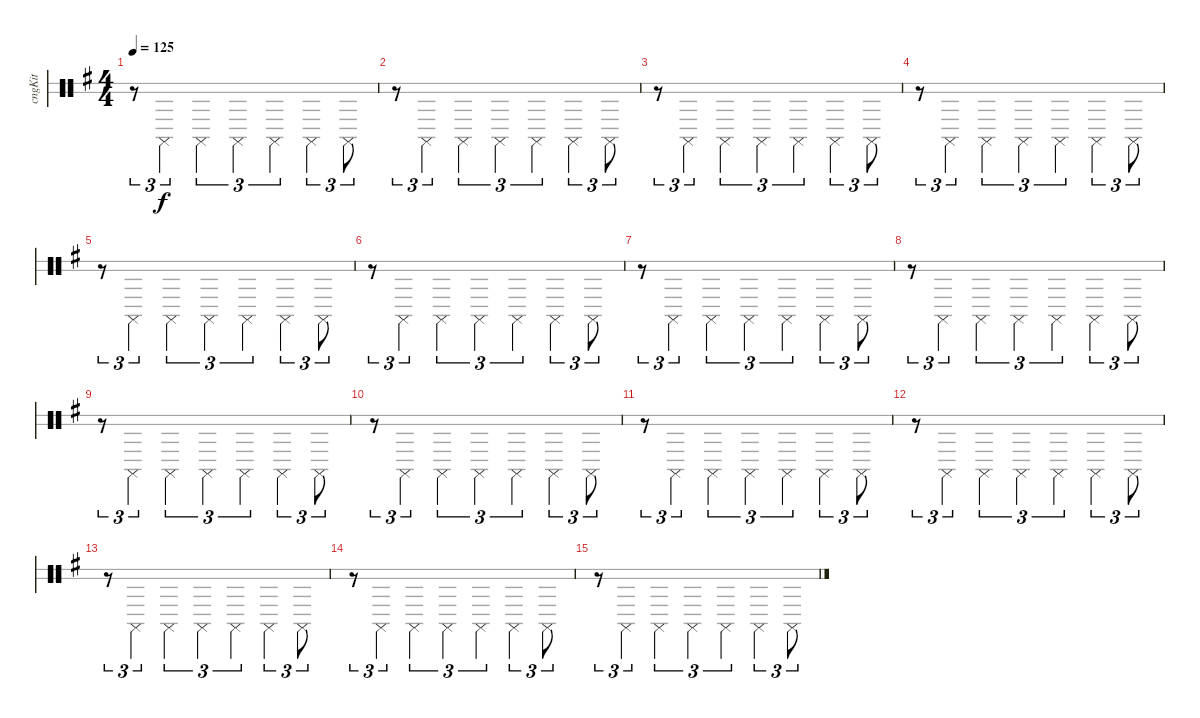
\defaultSystemsLayout 4
\bracketExtendMode groupsimilarinstruments
\otherSystemsTrackNameOrientation horizontal
\track ("Congas" "cngKit") {instrument percussion}
\staff {score 2}
\articulation defaults
\ts (4 4)
\tempo 125
\clef neutral
\scale
0.333333
\ks g
r.8{tu (3 2) dy f beam Down} "Conga high (slap)"{acc forcenatural}.4{tu (3 2) beam Down} "Conga high (slap)"{acc forcenatural}.4{tu (3 2) beam Down} "Conga high (slap)"{acc forcenatural}.4{tu (3 2) beam Down} "Conga high (slap)"{acc forcenatural}.4{tu (3 2) beam Down} "Conga high (slap)"{acc forcenatural}.4{tu (3 2) beam Down} "Conga high (slap)"{acc forcenatural}.8{tu (3 2) beam Down} |
\scale
0.333333 r.8{tu (3 2) beam Down} "Conga high (slap)"{acc forcenatural}.4{tu (3 2) beam Down} "Conga high (slap)"{acc forcenatural}.4{tu (3 2) beam Down} "Conga high (slap)"{acc forcenatural}.4{tu (3 2) beam Down} "Conga high (slap)"{acc forcenatural}.4{tu (3 2) beam Down} "Conga high (slap)"{acc forcenatural}.4{tu (3 2) beam Down} "Conga high (slap)"{acc forcenatural}.8{tu (3 2) beam Down} |
\scale
0.333333 r.8{tu (3 2) beam Down} "Conga high (slap)"{acc forcenatural}.4{tu (3 2) beam Down} "Conga high (slap)"{acc forcenatural}.4{tu (3 2) beam Down} "Conga high (slap)"{acc forcenatural}.4{tu (3 2) beam Down} "Conga high (slap)"{acc forcenatural}.4{tu (3 2) beam Down} "Conga high (slap)"{acc forcenatural}.4{tu (3 2) beam Down} "Conga high (slap)"{acc forcenatural}.8{tu (3 2) beam Down} |
\scale
0.333333 r.8{tu (3 2) beam Down} "Conga high (slap)"{acc forcenatural}.4{tu (3 2) beam Down} "Conga high (slap)"{acc forcenatural}.4{tu (3 2) beam Down} "Conga high (slap)"{acc forcenatural}.4{tu (3 2) beam Down} "Conga high (slap)"{acc forcenatural}.4{tu (3 2) beam Down} "Conga high (slap)"{acc forcenatural}.4{tu (3 2) beam Down} "Conga high (slap)"{acc forcenatural}.8{tu (3 2) beam Down} |
\scale
0.333333 r.8{tu (3 2) beam Down} "Conga high (slap)"{acc forcenatural}.4{tu (3 2) beam Down} "Conga high (slap)"{acc forcenatural}.4{tu (3 2) beam Down} "Conga high (slap)"{acc forcenatural}.4{tu (3 2) beam Down} "Conga high (slap)"{acc forcenatural}.4{tu (3 2) beam Down} "Conga high (slap)"{acc forcenatural}.4{tu (3 2) beam Down} "Conga high (slap)"{acc forcenatural}.8{tu (3 2) beam Down} |
\scale
0.333333 r.8{tu (3 2) beam Down} "Conga high (slap)"{acc forcenatural}.4{tu (3 2) beam Down} "Conga high (slap)"{acc forcenatural}.4{tu (3 2) beam Down} "Conga high (slap)"{acc forcenatural}.4{tu (3 2) beam Down} "Conga high (slap)"{acc forcenatural}.4{tu (3 2) beam Down} "Conga high (slap)"{acc forcenatural}.4{tu (3 2) beam Down} "Conga high (slap)"{acc forcenatural}.8{tu (3 2) beam Down} |
\scale
0.333333 r.8{tu (3 2) beam Down} "Conga high (slap)"{acc forcenatural}.4{tu (3 2) beam Down} "Conga high (slap)"{acc forcenatural}.4{tu (3 2) beam Down} "Conga high (slap)"{acc forcenatural}.4{tu (3 2) beam Down} "Conga high (slap)"{acc forcenatural}.4{tu (3 2) beam Down} "Conga high (slap)"{acc forcenatural}.4{tu (3 2) beam Down} "Conga high (slap)"{acc forcenatural}.8{tu (3 2) beam Down} |
\scale
0.333333 r.8{tu (3 2) beam Down} "Conga high (slap)"{acc forcenatural}.4{tu (3 2) beam Down} "Conga high (slap)"{acc forcenatural}.4{tu (3 2) beam Down} "Conga high (slap)"{acc forcenatural}.4{tu (3 2) beam Down} "Conga high (slap)"{acc forcenatural}.4{tu (3 2) beam Down} "Conga high (slap)"{acc forcenatural}.4{tu (3 2) beam Down} "Conga high (slap)"{acc forcenatural}.8{tu (3 2) beam Down} |
\scale
0.333333 r.8{tu (3 2) beam Down} "Conga high (slap)"{acc forcenatural}.4{tu (3 2) beam Down} "Conga high (slap)"{acc forcenatural}.4{tu (3 2) beam Down} "Conga high (slap)"{acc forcenatural}.4{tu (3 2) beam Down} "Conga high (slap)"{acc forcenatural}.4{tu (3 2) beam Down} "Conga high (slap)"{acc forcenatural}.4{tu (3 2) beam Down} "Conga high (slap)"{acc forcenatural}.8{tu (3 2) beam Down} |
\scale
0.333333 r.8{tu (3 2) beam Down} "Conga high (slap)"{acc forcenatural}.4{tu (3 2) beam Down} "Conga high (slap)"{acc forcenatural}.4{tu (3 2) beam Down} "Conga high (slap)"{acc forcenatural}.4{tu (3 2) beam Down} "Conga high (slap)"{acc forcenatural}.4{tu (3 2) beam Down} "Conga high (slap)"{acc forcenatural}.4{tu (3 2) beam Down} "Conga high (slap)"{acc forcenatural}.8{tu (3 2) beam Down} |
\scale
0.333333 r.8{tu (3 2) beam Down} "Conga high (slap)"{acc forcenatural}.4{tu (3 2) beam Down} "Conga high (slap)"{acc forcenatural}.4{tu (3 2) beam Down} "Conga high (slap)"{acc forcenatural}.4{tu (3 2) beam Down} "Conga high (slap)"{acc forcenatural}.4{tu (3 2) beam Down} "Conga high (slap)"{acc forcenatural}.4{tu (3 2) beam Down} "Conga high (slap)"{acc forcenatural}.8{tu (3 2) beam Down} |
\scale
0.333333 r.8{tu (3 2) beam Down} "Conga high (slap)"{acc forcenatural}.4{tu (3 2) beam Down} "Conga high (slap)"{acc forcenatural}.4{tu (3 2) beam Down} "Conga high (slap)"{acc forcenatural}.4{tu (3 2) beam Down} "Conga high (slap)"{acc forcenatural}.4{tu (3 2) beam Down} "Conga high (slap)"{acc forcenatural}.4{tu (3 2) beam Down} "Conga high (slap)"{acc forcenatural}.8{tu (3 2) beam Down} |
\scale
0.333333 r.8{tu (3 2) beam Down} "Conga high (slap)"{acc forcenatural}.4{tu (3 2) beam Down} "Conga high (slap)"{acc forcenatural}.4{tu (3 2) beam Down} "Conga high (slap)"{acc forcenatural}.4{tu (3 2) beam Down} "Conga high (slap)"{acc forcenatural}.4{tu (3 2) beam Down} "Conga high (slap)"{acc forcenatural}.4{tu (3 2) beam Down} "Conga high (slap)"{acc forcenatural}.8{tu (3 2) beam Down} |
\scale
0.333333 r.8{tu (3 2) beam Down} "Conga high (slap)"{acc forcenatural}.4{tu (3 2) beam Down} "Conga high (slap)"{acc forcenatural}.4{tu (3 2) beam Down} "Conga high (slap)"{acc forcenatural}.4{tu (3 2) beam Down} "Conga high (slap)"{acc forcenatural}.4{tu (3 2) beam Down} "Conga high (slap)"{acc forcenatural}.4{tu (3 2) beam Down} "Conga high (slap)"{acc forcenatural}.8{tu (3 2) beam Down} |
\scale
0.333333 r.8{tu (3 2) beam Down} "Conga high (slap)"{acc forcenatural}.4{tu (3 2) beam Down} "Conga high (slap)"{acc forcenatural}.4{tu (3 2) beam Down} "Conga high (slap)"{acc forcenatural}.4{tu (3 2) beam Down} "Conga high (slap)"{acc forcenatural}.4{tu (3 2) beam Down} "Conga high (slap)"{acc forcenatural}.4{tu (3 2) beam Down} "Conga high (slap)"{acc forcenatural}.8{tu (3 2) beam Down} |
\scale
0.333333
